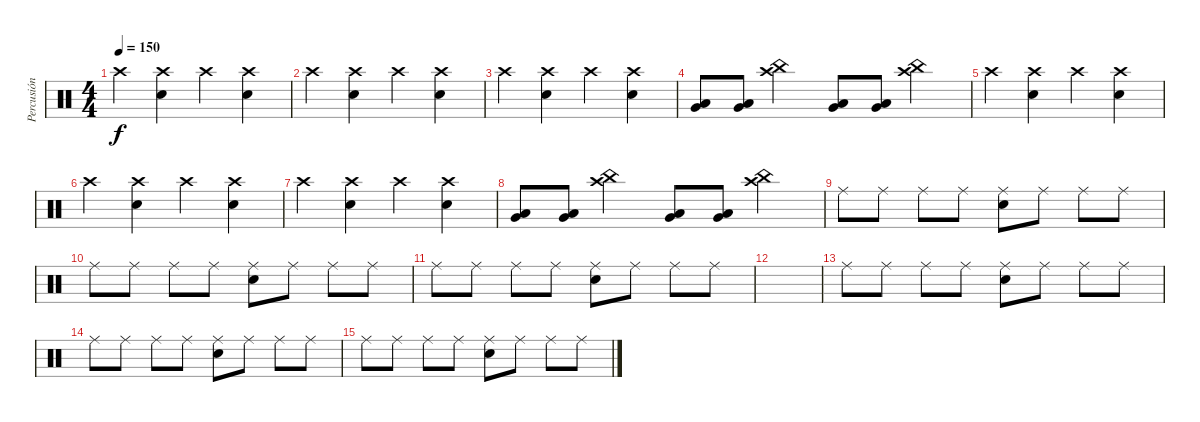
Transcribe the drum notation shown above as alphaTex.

\track ("Percusión" "Percusión") {instrument percussion}
\staff {score}
\articulation defaults
\ts (4 4)
\tempo 150
\clef neutral
\ks c "Crash high (hit)".4{dy f}
("Snare (hit) 2" "Crash high (hit)").4 "Crash high (hit)".4 ("Snare (hit) 2" "Crash high (hit)").4 |
"Crash high (hit)".4 ("Snare (hit) 2" "Crash high (hit)").4 "Crash high (hit)".4 ("Snare (hit) 2" "Crash high (hit)").4 |
"Crash high (hit)".4 ("Snare (hit) 2" "Crash high (hit)").4 "Crash high (hit)".4 ("Snare (hit) 2" "Crash high (hit)").4 |
("Low Tom (hit)" "Very Low Tom (hit)").8 ("Low Tom (hit)" "Very Low Tom (hit)").8 ("China (hit)" "Crash high (hit)").4 ("Low Tom (hit)" "Very Low Tom (hit)").8 ("Low Tom (hit)" "Very Low Tom (hit)").8 ("China (hit)" "Crash high (hit)").4 |
"Crash high (hit)".4 ("Snare (hit) 2" "Crash high (hit)").4 "Crash high (hit)".4 ("Snare (hit) 2" "Crash high (hit)").4 |
"Crash high (hit)".4 ("Snare (hit) 2" "Crash high (hit)").4 "Crash high (hit)".4 ("Snare (hit) 2" "Crash high (hit)").4 |
"Crash high (hit)".4 ("Snare (hit) 2" "Crash high (hit)").4 "Crash high (hit)".4 ("Snare (hit) 2" "Crash high (hit)").4 |
("Low Tom (hit)" "Very Low Tom (hit)").8 ("Low Tom (hit)" "Very Low Tom (hit)").8 ("China (hit)" "Crash high (hit)").4 ("Low Tom (hit)" "Very Low Tom (hit)").8 ("Low Tom (hit)" "Very Low Tom (hit)").8 ("China (hit)" "Crash high (hit)").4 |
"Ride (middle)".8 "Ride (middle)".8 "Ride (middle)".8 "Ride (middle)".8 ("Snare (hit) 2" "Ride (middle)").8 "Ride (middle)".8 "Ride (middle)".8 "Ride (middle)".8 |
"Ride (middle)".8 "Ride (middle)".8 "Ride (middle)".8 "Ride (middle)".8 ("Snare (hit) 2" "Ride (middle)").8 "Ride (middle)".8 "Ride (middle)".8 "Ride (middle)".8 |
"Ride (middle)".8 "Ride (middle)".8 "Ride (middle)".8 "Ride (middle)".8 ("Snare (hit) 2" "Ride (middle)").8 "Ride (middle)".8 "Ride (middle)".8 "Ride (middle)".8 |
|
"Ride (middle)".8 "Ride (middle)".8 "Ride (middle)".8 "Ride (middle)".8 ("Snare (hit) 2" "Ride (middle)").8 "Ride (middle)".8 "Ride (middle)".8 "Ride (middle)".8 |
"Ride (middle)".8 "Ride (middle)".8 "Ride (middle)".8 "Ride (middle)".8 ("Snare (hit) 2" "Ride (middle)").8 "Ride (middle)".8 "Ride (middle)".8 "Ride (middle)".8 |
"Ride (middle)".8 "Ride (middle)".8 "Ride (middle)".8 "Ride (middle)".8 ("Snare (hit) 2" "Ride (middle)").8 "Ride (middle)".8 "Ride (middle)".8 "Ride (middle)".8
